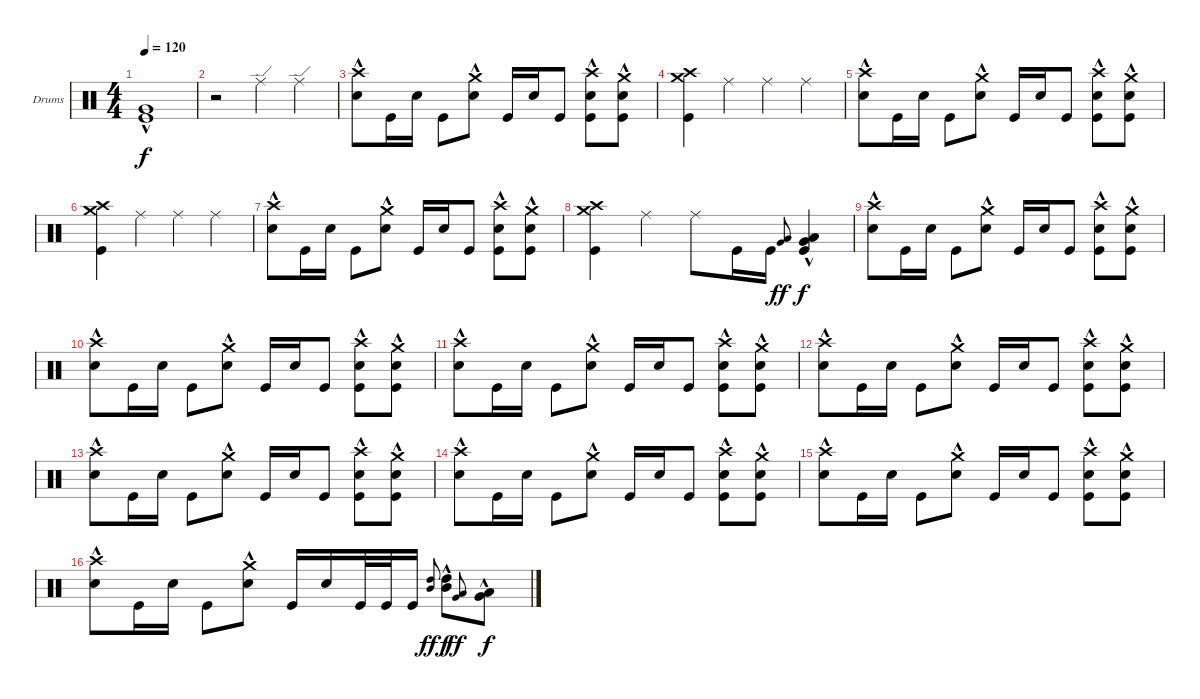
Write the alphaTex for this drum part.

\bracketExtendMode groupsimilarinstruments
\firstSystemTrackNameOrientation horizontal
\otherSystemsTrackNameOrientation horizontal
\track ("Drumkit (Christoph)" "Drums") {instrument percussion}
\staff {score}
\articulation defaults
\ts (4 4)
\tempo 120
\clef neutral
\ks c
("Kick (hit)"{hac} "Very Low Tom (hit)"{hac}).1{dy f} |
r.2 "Ride (edge)".4 "Ride (edge)".4 |
("Crash high (hit)" "Snare (hit) 2"{hac}).8 "Kick (hit)".16 "Snare (hit) 2".16 "Kick (hit)".8 ("Crash medium (hit)" "Snare (hit) 2"{hac}).8 "Kick (hit)".16 "Snare (hit) 2".16 "Kick (hit)".8 ("Crash high (hit)" "Kick (hit)" "Snare (hit) 2"{hac}).8 ("Crash medium (hit)" "Kick (hit)" "Snare (hit) 2"{hac}).8 |
("Crash medium (hit)" "Kick (hit)" "Crash high (hit)").4 "Ride (middle)".4 "Ride (middle)".4 "Ride (middle)".4 |
("Crash high (hit)" "Snare (hit) 2"{hac}).8 "Kick (hit)".16 "Snare (hit) 2".16 "Kick (hit)".8 ("Crash medium (hit)" "Snare (hit) 2"{hac}).8 "Kick (hit)".16 "Snare (hit) 2".16 "Kick (hit)".8 ("Crash high (hit)" "Kick (hit)" "Snare (hit) 2"{hac}).8 ("Crash medium (hit)" "Kick (hit)" "Snare (hit) 2"{hac}).8 |
("Crash medium (hit)" "Kick (hit)" "Crash high (hit)").4 "Ride (middle)".4 "Ride (middle)".4 "Ride (middle)".4 |
("Crash high (hit)" "Snare (hit) 2"{hac}).8 "Kick (hit)".16 "Snare (hit) 2".16 "Kick (hit)".8 ("Crash medium (hit)" "Snare (hit) 2"{hac}).8 "Kick (hit)".16 "Snare (hit) 2".16 "Kick (hit)".8 ("Crash high (hit)" "Kick (hit)" "Snare (hit) 2"{hac}).8 ("Crash medium (hit)" "Kick (hit)" "Snare (hit) 2"{hac}).8 |
("Crash medium (hit)" "Kick (hit)" "Crash high (hit)").4 "Ride (middle)".4 "Ride (middle)".8 "Kick (hit)".16 "Kick (hit)".16 ("Low Tom (hit)" "Very Low Tom (hit)").8{gr onbeat dy ff} ("Kick (hit)" "Low Tom (hit)"{hac} "Very Low Tom (hit)"{hac}).4{dy f} |
("Crash high (hit)" "Snare (hit) 2"{hac}).8 "Kick (hit)".16 "Snare (hit) 2".16 "Kick (hit)".8 ("Crash medium (hit)" "Snare (hit) 2"{hac}).8 "Kick (hit)".16 "Snare (hit) 2".16 "Kick (hit)".8 ("Crash high (hit)" "Kick (hit)" "Snare (hit) 2"{hac}).8 ("Crash medium (hit)" "Kick (hit)" "Snare (hit) 2"{hac}).8 |
("Crash high (hit)" "Snare (hit) 2"{hac}).8 "Kick (hit)".16 "Snare (hit) 2".16 "Kick (hit)".8 ("Crash medium (hit)" "Snare (hit) 2"{hac}).8 "Kick (hit)".16 "Snare (hit) 2".16 "Kick (hit)".8 ("Crash high (hit)" "Kick (hit)" "Snare (hit) 2"{hac}).8 ("Crash medium (hit)" "Kick (hit)" "Snare (hit) 2"{hac}).8 |
("Crash high (hit)" "Snare (hit) 2"{hac}).8 "Kick (hit)".16 "Snare (hit) 2".16 "Kick (hit)".8 ("Crash medium (hit)" "Snare (hit) 2"{hac}).8 "Kick (hit)".16 "Snare (hit) 2".16 "Kick (hit)".8 ("Crash high (hit)" "Kick (hit)" "Snare (hit) 2"{hac}).8 ("Crash medium (hit)" "Kick (hit)" "Snare (hit) 2"{hac}).8 |
("Crash high (hit)" "Snare (hit) 2"{hac}).8 "Kick (hit)".16 "Snare (hit) 2".16 "Kick (hit)".8 ("Crash medium (hit)" "Snare (hit) 2"{hac}).8 "Kick (hit)".16 "Snare (hit) 2".16 "Kick (hit)".8 ("Crash high (hit)" "Kick (hit)" "Snare (hit) 2"{hac}).8 ("Crash medium (hit)" "Kick (hit)" "Snare (hit) 2"{hac}).8 |
("Crash high (hit)" "Snare (hit) 2"{hac}).8 "Kick (hit)".16 "Snare (hit) 2".16 "Kick (hit)".8 ("Crash medium (hit)" "Snare (hit) 2"{hac}).8 "Kick (hit)".16 "Snare (hit) 2".16 "Kick (hit)".8 ("Crash high (hit)" "Kick (hit)" "Snare (hit) 2"{hac}).8 ("Crash medium (hit)" "Kick (hit)" "Snare (hit) 2"{hac}).8 |
("Crash high (hit)" "Snare (hit) 2"{hac}).8 "Kick (hit)".16 "Snare (hit) 2".16 "Kick (hit)".8 ("Crash medium (hit)" "Snare (hit) 2"{hac}).8 "Kick (hit)".16 "Snare (hit) 2".16 "Kick (hit)".8 ("Crash high (hit)" "Kick (hit)" "Snare (hit) 2"{hac}).8 ("Crash medium (hit)" "Kick (hit)" "Snare (hit) 2"{hac}).8 |
("Crash high (hit)" "Snare (hit) 2"{hac}).8 "Kick (hit)".16 "Snare (hit) 2".16 "Kick (hit)".8 ("Crash medium (hit)" "Snare (hit) 2"{hac}).8 "Kick (hit)".16 "Snare (hit) 2".16 "Kick (hit)".8 ("Crash high (hit)" "Kick (hit)" "Snare (hit) 2"{hac}).8 ("Crash medium (hit)" "Kick (hit)" "Snare (hit) 2"{hac}).8 |
("Crash high (hit)" "Snare (hit) 2"{hac}).8 "Kick (hit)".16 "Snare (hit) 2".16 "Kick (hit)".8 ("Crash medium (hit)" "Snare (hit) 2"{hac}).8 "Kick (hit)".16 "Snare (hit) 2".16 "Kick (hit)".32 "Kick (hit)".32 "Kick (hit)".16 ("High Tom (hit)" "Mid Tom (hit)").8{gr onbeat dy ff} ("High Tom (hit)"{hac} "Mid Tom (hit)"{hac}).8{dy f} ("Low Tom (hit)" "Very Low Tom (hit)").8{gr onbeat dy ff} ("Low Tom (hit)"{hac} "Very Low Tom (hit)"{hac}).8{dy f}
